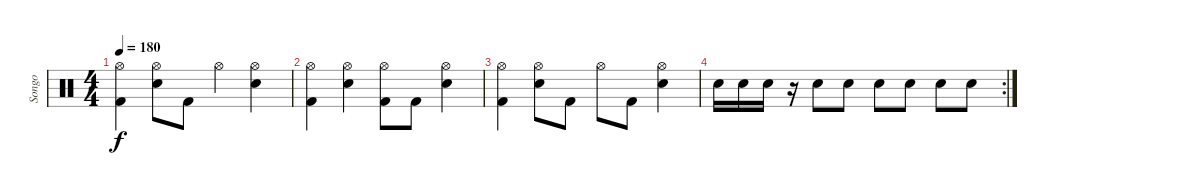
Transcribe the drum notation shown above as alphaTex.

\track ("Songo" "Songo") {instrument percussion}
\staff {score}
\articulation defaults
\ts (4 4)
\tempo 180
\clef neutral
\ks c
("Hi-Hat (open)" "Kick (hit) 2").4{dy f} ("Hi-Hat (open)" "Electric Snare (hit)").8 "Kick (hit) 2".8 "Hi-Hat (open)".4 ("Hi-Hat (open)" "Electric Snare (hit)").4 |
("Hi-Hat (open)" "Kick (hit) 2").4 ("Hi-Hat (open)" "Electric Snare (hit)").4 ("Hi-Hat (open)" "Kick (hit) 2").8 "Kick (hit) 2".8 ("Hi-Hat (open)" "Electric Snare (hit)").4 |
("Hi-Hat (open)" "Kick (hit) 2").4 ("Hi-Hat (open)" "Electric Snare (hit)").8 "Kick (hit) 2".8 "Hi-Hat (open)".8 "Kick (hit) 2".8 ("Hi-Hat (open)" "Electric Snare (hit)").4 |
\rc 2 "Electric Snare (hit)".16 "Electric Snare (hit)".16 "Electric Snare (hit)".16
r.16 "Electric Snare (hit)".8 "Electric Snare (hit)".8 "Electric Snare (hit)".8 "Electric Snare (hit)".8 "Electric Snare (hit)".8 "Electric Snare (hit)".8
